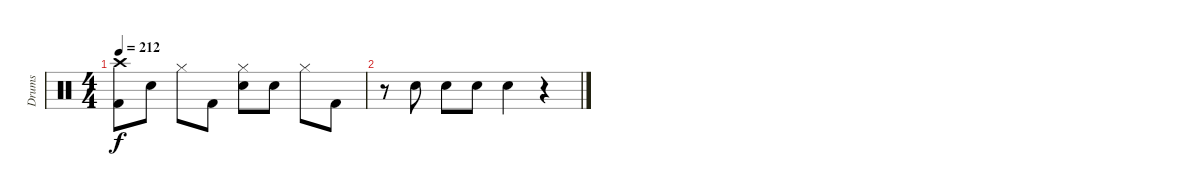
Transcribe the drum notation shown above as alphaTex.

\track ("Drums" "Drums") {instrument percussion}
\staff {score}
\articulation defaults
\ts (4 4)
\tempo 212
\clef neutral
\ks c
("Crash high (hit)" "Kick (hit) 2").8{dy f} "Snare (hit) 2".8 "Hi-Hat (closed)".8 "Kick (hit) 2".8 ("Hi-Hat (closed)" "Snare (hit) 2").8 "Snare (hit) 2".8 "Hi-Hat (closed)".8 "Kick (hit) 2".8 |
r.8 "Snare (hit) 2".8 "Snare (hit) 2".8 "Snare (hit) 2".8 "Snare (hit) 2".4 r.4
